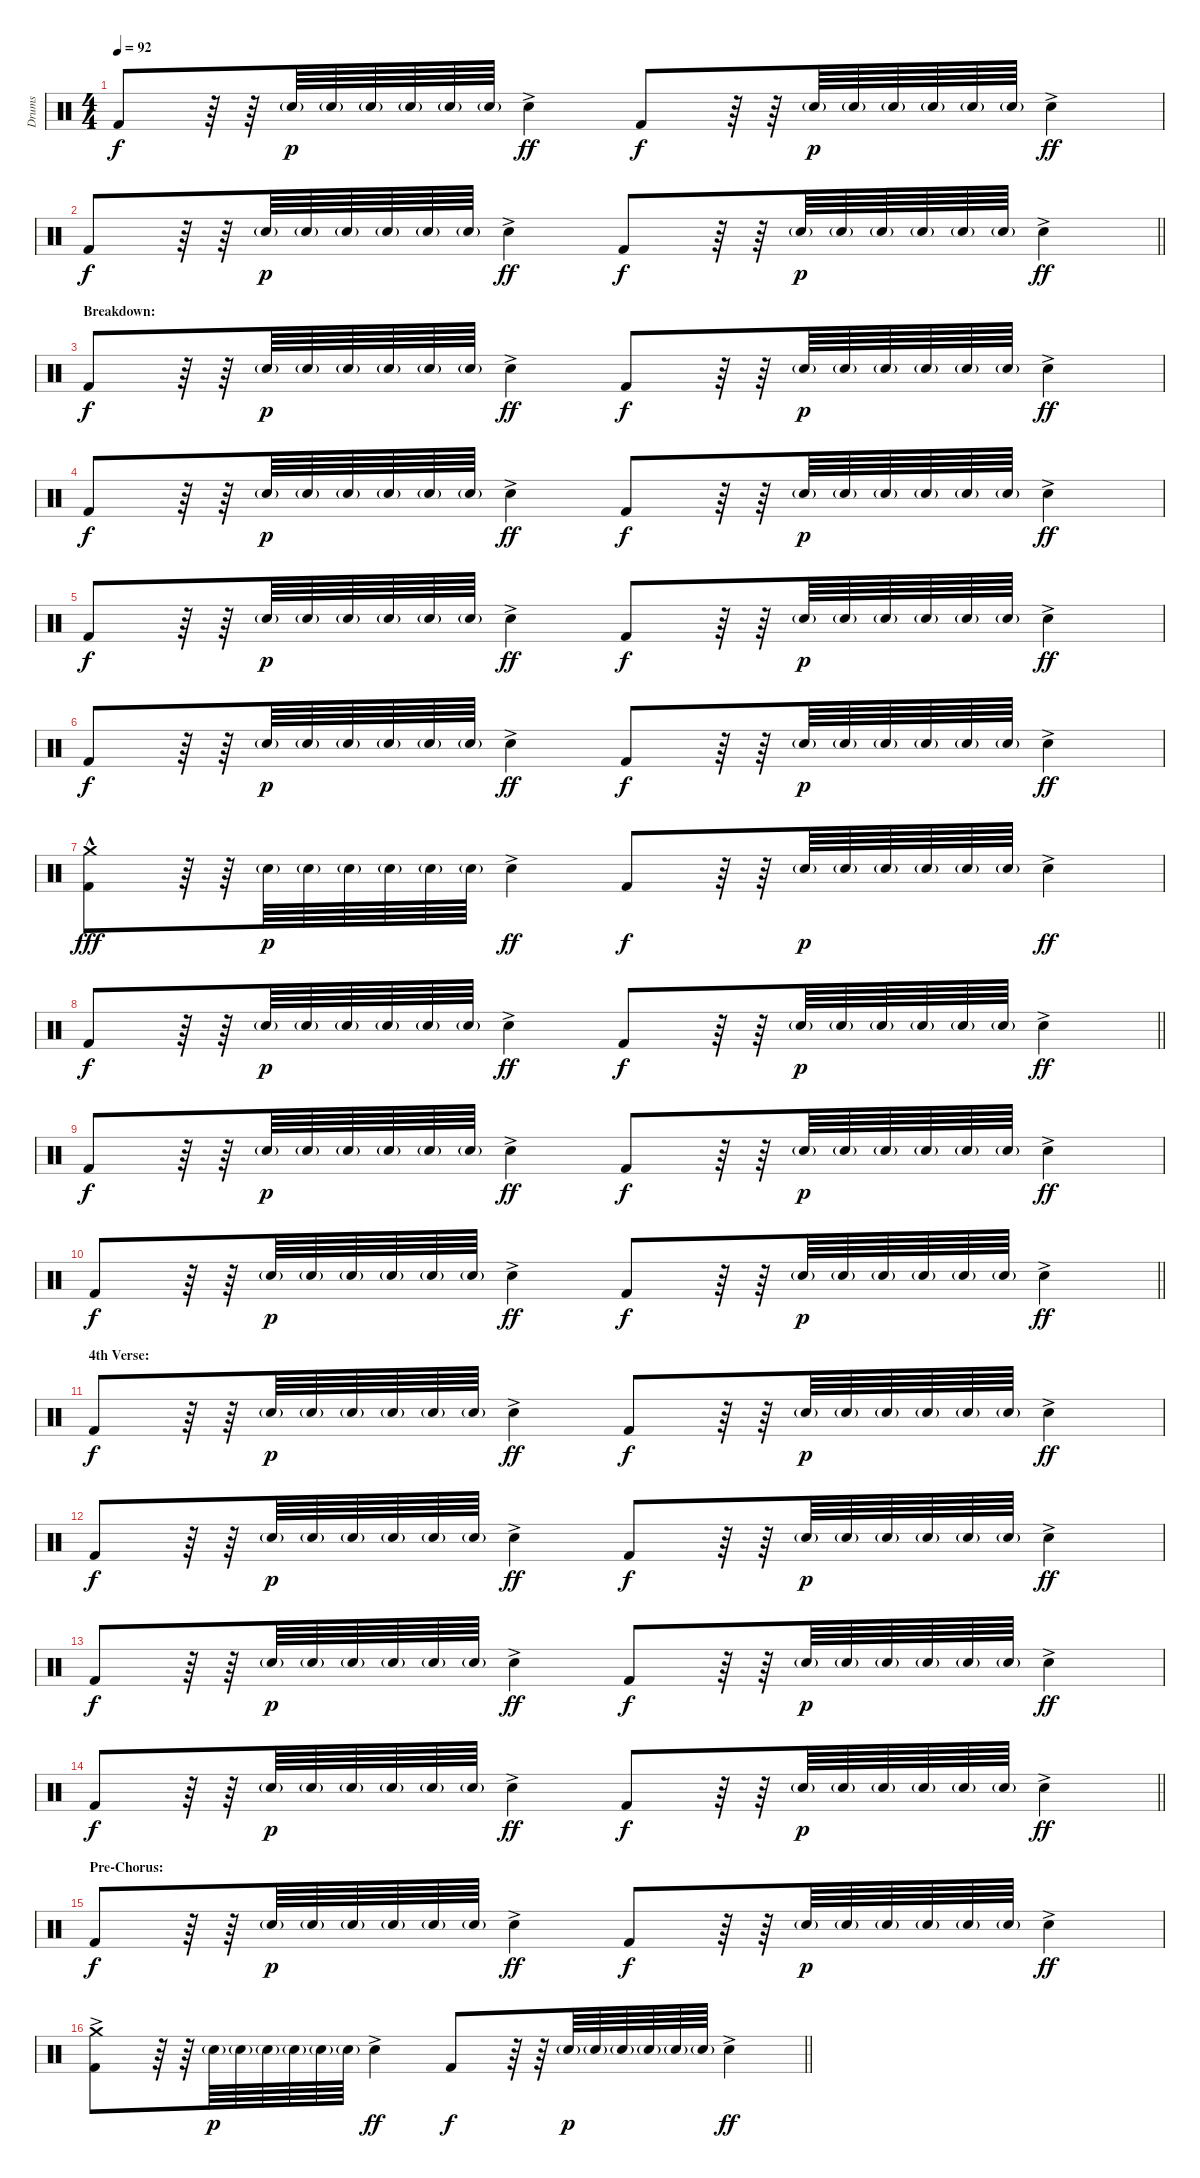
\track ("Drums" "Drums") {instrument percussion}
\staff {score}
\articulation defaults
\ts (4 4)
\tempo 92
\clef neutral
\ks c "Kick (hit) 2".8{dy f}
r.64 r.64 "Snare (hit) 2"{g}.64{dy p} "Snare (hit) 2"{g}.64 "Snare (hit) 2"{g}.64 "Snare (hit) 2"{g}.64 "Snare (hit) 2"{g}.64 "Snare (hit) 2"{g}.64 "Snare (hit) 2"{ac}.4{dy ff} "Kick (hit) 2".8{dy f} r.64 r.64 "Snare (hit) 2"{g}.64{dy p} "Snare (hit) 2"{g}.64 "Snare (hit) 2"{g}.64 "Snare (hit) 2"{g}.64 "Snare (hit) 2"{g}.64 "Snare (hit) 2"{g}.64 "Snare (hit) 2"{ac}.4{dy ff} |
\barLineRight lightlight "Kick (hit) 2".8{dy f}
r.64 r.64 "Snare (hit) 2"{g}.64{dy p} "Snare (hit) 2"{g}.64 "Snare (hit) 2"{g}.64 "Snare (hit) 2"{g}.64 "Snare (hit) 2"{g}.64 "Snare (hit) 2"{g}.64 "Snare (hit) 2"{ac}.4{dy ff} "Kick (hit) 2".8{dy f} r.64 r.64 "Snare (hit) 2"{g}.64{dy p} "Snare (hit) 2"{g}.64 "Snare (hit) 2"{g}.64 "Snare (hit) 2"{g}.64 "Snare (hit) 2"{g}.64 "Snare (hit) 2"{g}.64 "Snare (hit) 2"{ac}.4{dy ff} |
\section ("" "Breakdown:")
"Kick (hit) 2".8{dy f} r.64 r.64 "Snare (hit) 2"{g}.64{dy p} "Snare (hit) 2"{g}.64 "Snare (hit) 2"{g}.64 "Snare (hit) 2"{g}.64 "Snare (hit) 2"{g}.64 "Snare (hit) 2"{g}.64 "Snare (hit) 2"{ac}.4{dy ff} "Kick (hit) 2".8{dy f} r.64 r.64 "Snare (hit) 2"{g}.64{dy p} "Snare (hit) 2"{g}.64 "Snare (hit) 2"{g}.64 "Snare (hit) 2"{g}.64 "Snare (hit) 2"{g}.64 "Snare (hit) 2"{g}.64 "Snare (hit) 2"{ac}.4{dy ff} |
"Kick (hit) 2".8{dy f} r.64 r.64 "Snare (hit) 2"{g}.64{dy p} "Snare (hit) 2"{g}.64 "Snare (hit) 2"{g}.64 "Snare (hit) 2"{g}.64 "Snare (hit) 2"{g}.64 "Snare (hit) 2"{g}.64 "Snare (hit) 2"{ac}.4{dy ff} "Kick (hit) 2".8{dy f} r.64 r.64 "Snare (hit) 2"{g}.64{dy p} "Snare (hit) 2"{g}.64 "Snare (hit) 2"{g}.64 "Snare (hit) 2"{g}.64 "Snare (hit) 2"{g}.64 "Snare (hit) 2"{g}.64 "Snare (hit) 2"{ac}.4{dy ff} |
"Kick (hit) 2".8{dy f} r.64 r.64 "Snare (hit) 2"{g}.64{dy p} "Snare (hit) 2"{g}.64 "Snare (hit) 2"{g}.64 "Snare (hit) 2"{g}.64 "Snare (hit) 2"{g}.64 "Snare (hit) 2"{g}.64 "Snare (hit) 2"{ac}.4{dy ff} "Kick (hit) 2".8{dy f} r.64 r.64 "Snare (hit) 2"{g}.64{dy p} "Snare (hit) 2"{g}.64 "Snare (hit) 2"{g}.64 "Snare (hit) 2"{g}.64 "Snare (hit) 2"{g}.64 "Snare (hit) 2"{g}.64 "Snare (hit) 2"{ac}.4{dy ff} |
"Kick (hit) 2".8{dy f} r.64 r.64 "Snare (hit) 2"{g}.64{dy p} "Snare (hit) 2"{g}.64 "Snare (hit) 2"{g}.64 "Snare (hit) 2"{g}.64 "Snare (hit) 2"{g}.64 "Snare (hit) 2"{g}.64 "Snare (hit) 2"{ac}.4{dy ff} "Kick (hit) 2".8{dy f} r.64 r.64 "Snare (hit) 2"{g}.64{dy p} "Snare (hit) 2"{g}.64 "Snare (hit) 2"{g}.64 "Snare (hit) 2"{g}.64 "Snare (hit) 2"{g}.64 "Snare (hit) 2"{g}.64 "Snare (hit) 2"{ac}.4{dy ff} |
("Crash medium (hit)"{hac} "Kick (hit) 2").8{dy fff} r.64 r.64 "Snare (hit) 2"{g}.64{dy p} "Snare (hit) 2"{g}.64 "Snare (hit) 2"{g}.64 "Snare (hit) 2"{g}.64 "Snare (hit) 2"{g}.64 "Snare (hit) 2"{g}.64 "Snare (hit) 2"{ac}.4{dy ff} "Kick (hit) 2".8{dy f} r.64 r.64 "Snare (hit) 2"{g}.64{dy p} "Snare (hit) 2"{g}.64 "Snare (hit) 2"{g}.64 "Snare (hit) 2"{g}.64 "Snare (hit) 2"{g}.64 "Snare (hit) 2"{g}.64 "Snare (hit) 2"{ac}.4{dy ff} |
\barLineRight lightlight "Kick (hit) 2".8{dy f}
r.64 r.64 "Snare (hit) 2"{g}.64{dy p} "Snare (hit) 2"{g}.64 "Snare (hit) 2"{g}.64 "Snare (hit) 2"{g}.64 "Snare (hit) 2"{g}.64 "Snare (hit) 2"{g}.64 "Snare (hit) 2"{ac}.4{dy ff} "Kick (hit) 2".8{dy f} r.64 r.64 "Snare (hit) 2"{g}.64{dy p} "Snare (hit) 2"{g}.64 "Snare (hit) 2"{g}.64 "Snare (hit) 2"{g}.64 "Snare (hit) 2"{g}.64 "Snare (hit) 2"{g}.64 "Snare (hit) 2"{ac}.4{dy ff} |
"Kick (hit) 2".8{dy f} r.64 r.64 "Snare (hit) 2"{g}.64{dy p} "Snare (hit) 2"{g}.64 "Snare (hit) 2"{g}.64 "Snare (hit) 2"{g}.64 "Snare (hit) 2"{g}.64 "Snare (hit) 2"{g}.64 "Snare (hit) 2"{ac}.4{dy ff} "Kick (hit) 2".8{dy f} r.64 r.64 "Snare (hit) 2"{g}.64{dy p} "Snare (hit) 2"{g}.64 "Snare (hit) 2"{g}.64 "Snare (hit) 2"{g}.64 "Snare (hit) 2"{g}.64 "Snare (hit) 2"{g}.64 "Snare (hit) 2"{ac}.4{dy ff} |
\barLineRight lightlight "Kick (hit) 2".8{dy f}
r.64 r.64 "Snare (hit) 2"{g}.64{dy p} "Snare (hit) 2"{g}.64 "Snare (hit) 2"{g}.64 "Snare (hit) 2"{g}.64 "Snare (hit) 2"{g}.64 "Snare (hit) 2"{g}.64 "Snare (hit) 2"{ac}.4{dy ff} "Kick (hit) 2".8{dy f} r.64 r.64 "Snare (hit) 2"{g}.64{dy p} "Snare (hit) 2"{g}.64 "Snare (hit) 2"{g}.64 "Snare (hit) 2"{g}.64 "Snare (hit) 2"{g}.64 "Snare (hit) 2"{g}.64 "Snare (hit) 2"{ac}.4{dy ff} |
\section ("" "4th Verse:")
"Kick (hit) 2".8{dy f} r.64 r.64 "Snare (hit) 2"{g}.64{dy p} "Snare (hit) 2"{g}.64 "Snare (hit) 2"{g}.64 "Snare (hit) 2"{g}.64 "Snare (hit) 2"{g}.64 "Snare (hit) 2"{g}.64 "Snare (hit) 2"{ac}.4{dy ff} "Kick (hit) 2".8{dy f} r.64 r.64 "Snare (hit) 2"{g}.64{dy p} "Snare (hit) 2"{g}.64 "Snare (hit) 2"{g}.64 "Snare (hit) 2"{g}.64 "Snare (hit) 2"{g}.64 "Snare (hit) 2"{g}.64 "Snare (hit) 2"{ac}.4{dy ff} |
"Kick (hit) 2".8{dy f} r.64 r.64 "Snare (hit) 2"{g}.64{dy p} "Snare (hit) 2"{g}.64 "Snare (hit) 2"{g}.64 "Snare (hit) 2"{g}.64 "Snare (hit) 2"{g}.64 "Snare (hit) 2"{g}.64 "Snare (hit) 2"{ac}.4{dy ff} "Kick (hit) 2".8{dy f} r.64 r.64 "Snare (hit) 2"{g}.64{dy p} "Snare (hit) 2"{g}.64 "Snare (hit) 2"{g}.64 "Snare (hit) 2"{g}.64 "Snare (hit) 2"{g}.64 "Snare (hit) 2"{g}.64 "Snare (hit) 2"{ac}.4{dy ff} |
"Kick (hit) 2".8{dy f} r.64 r.64 "Snare (hit) 2"{g}.64{dy p} "Snare (hit) 2"{g}.64 "Snare (hit) 2"{g}.64 "Snare (hit) 2"{g}.64 "Snare (hit) 2"{g}.64 "Snare (hit) 2"{g}.64 "Snare (hit) 2"{ac}.4{dy ff} "Kick (hit) 2".8{dy f} r.64 r.64 "Snare (hit) 2"{g}.64{dy p} "Snare (hit) 2"{g}.64 "Snare (hit) 2"{g}.64 "Snare (hit) 2"{g}.64 "Snare (hit) 2"{g}.64 "Snare (hit) 2"{g}.64 "Snare (hit) 2"{ac}.4{dy ff} |
\barLineRight lightlight "Kick (hit) 2".8{dy f}
r.64 r.64 "Snare (hit) 2"{g}.64{dy p} "Snare (hit) 2"{g}.64 "Snare (hit) 2"{g}.64 "Snare (hit) 2"{g}.64 "Snare (hit) 2"{g}.64 "Snare (hit) 2"{g}.64 "Snare (hit) 2"{ac}.4{dy ff} "Kick (hit) 2".8{dy f} r.64 r.64 "Snare (hit) 2"{g}.64{dy p} "Snare (hit) 2"{g}.64 "Snare (hit) 2"{g}.64 "Snare (hit) 2"{g}.64 "Snare (hit) 2"{g}.64 "Snare (hit) 2"{g}.64 "Snare (hit) 2"{ac}.4{dy ff} |
\section ("" "Pre-Chorus:")
"Kick (hit) 2".8{dy f} r.64 r.64 "Snare (hit) 2"{g}.64{dy p} "Snare (hit) 2"{g}.64 "Snare (hit) 2"{g}.64 "Snare (hit) 2"{g}.64 "Snare (hit) 2"{g}.64 "Snare (hit) 2"{g}.64 "Snare (hit) 2"{ac}.4{dy ff} "Kick (hit) 2".8{dy f} r.64 r.64 "Snare (hit) 2"{g}.64{dy p} "Snare (hit) 2"{g}.64 "Snare (hit) 2"{g}.64 "Snare (hit) 2"{g}.64 "Snare (hit) 2"{g}.64 "Snare (hit) 2"{g}.64 "Snare (hit) 2"{ac}.4{dy ff} |
\barLineRight lightlight
("Crash medium (hit)"{ac} "Kick (hit) 2").8 r.64 r.64 "Snare (hit) 2"{g}.64{dy p} "Snare (hit) 2"{g}.64 "Snare (hit) 2"{g}.64 "Snare (hit) 2"{g}.64 "Snare (hit) 2"{g}.64 "Snare (hit) 2"{g}.64 "Snare (hit) 2"{ac}.4{dy ff} "Kick (hit) 2".8{dy f} r.64 r.64 "Snare (hit) 2"{g}.64{dy p} "Snare (hit) 2"{g}.64 "Snare (hit) 2"{g}.64 "Snare (hit) 2"{g}.64 "Snare (hit) 2"{g}.64 "Snare (hit) 2"{g}.64 "Snare (hit) 2"{ac}.4{dy ff}
